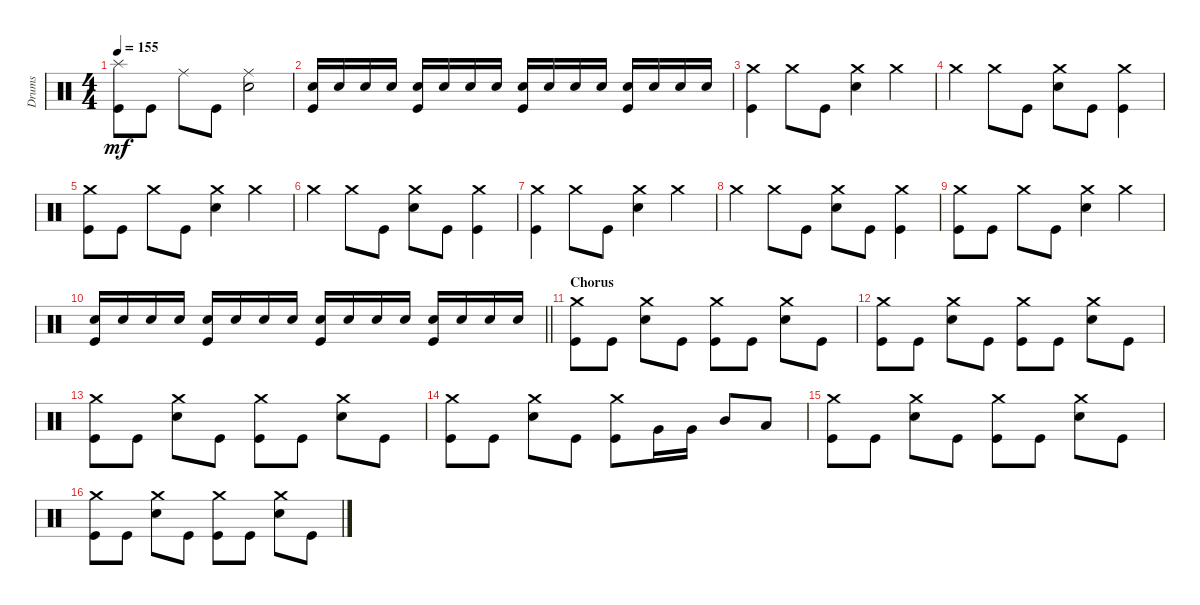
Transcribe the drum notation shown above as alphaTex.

\track ("Drums" "Drums") {instrument percussion}
\staff {score}
\articulation defaults
\ts (4 4)
\tempo 155
\clef neutral
\ks c
("Kick (hit)" "Splash (hit)").8{dy mf} "Kick (hit)".8 "Ride (middle)".8 "Kick (hit)".8 ("Snare (hit) 2" "Ride (middle)").2 |
("Kick (hit)" "Snare (hit) 2").16 "Snare (hit) 2".16 "Snare (hit) 2".16 "Snare (hit) 2".16 ("Kick (hit)" "Snare (hit) 2").16 "Snare (hit) 2".16 "Snare (hit) 2".16 "Snare (hit) 2".16 ("Kick (hit)" "Snare (hit) 2").16 "Snare (hit) 2".16 "Snare (hit) 2".16 "Snare (hit) 2".16 ("Kick (hit)" "Snare (hit) 2").16 "Snare (hit) 2".16 "Snare (hit) 2".16 "Snare (hit) 2".16 |
("Crash medium (hit)" "Kick (hit)").4 "Crash medium (hit)".8 "Kick (hit)".8 ("Snare (hit) 2" "Crash medium (hit)").4 "Crash medium (hit)".4 |
"Crash medium (hit)".4 "Crash medium (hit)".8 "Kick (hit)".8 ("Snare (hit) 2" "Crash medium (hit)").8 "Kick (hit)".8 ("Kick (hit)" "Crash medium (hit)").4 |
("Crash medium (hit)" "Kick (hit)").8 "Kick (hit)".8 "Crash medium (hit)".8 "Kick (hit)".8 ("Snare (hit) 2" "Crash medium (hit)").4 "Crash medium (hit)".4 |
"Crash medium (hit)".4 "Crash medium (hit)".8 "Kick (hit)".8 ("Snare (hit) 2" "Crash medium (hit)").8 "Kick (hit)".8 ("Kick (hit)" "Crash medium (hit)").4 |
("Crash medium (hit)" "Kick (hit)").4 "Crash medium (hit)".8 "Kick (hit)".8 ("Snare (hit) 2" "Crash medium (hit)").4 "Crash medium (hit)".4 |
"Crash medium (hit)".4 "Crash medium (hit)".8 "Kick (hit)".8 ("Snare (hit) 2" "Crash medium (hit)").8 "Kick (hit)".8 ("Kick (hit)" "Crash medium (hit)").4 |
("Crash medium (hit)" "Kick (hit)").8 "Kick (hit)".8 "Crash medium (hit)".8 "Kick (hit)".8 ("Snare (hit) 2" "Crash medium (hit)").4 "Crash medium (hit)".4 |
\barLineRight lightlight
("Kick (hit)" "Snare (hit) 2").16 "Snare (hit) 2".16 "Snare (hit) 2".16 "Snare (hit) 2".16 ("Kick (hit)" "Snare (hit) 2").16 "Snare (hit) 2".16 "Snare (hit) 2".16 "Snare (hit) 2".16 ("Kick (hit)" "Snare (hit) 2").16 "Snare (hit) 2".16 "Snare (hit) 2".16 "Snare (hit) 2".16 ("Kick (hit)" "Snare (hit) 2").16 "Snare (hit) 2".16 "Snare (hit) 2".16 "Snare (hit) 2".16 |
\section ("" "Chorus")
("Kick (hit)" "Crash medium (hit)").8 "Kick (hit)".8 ("Snare (hit) 2" "Crash medium (hit)").8 "Kick (hit)".8 ("Kick (hit)" "Crash medium (hit)").8 "Kick (hit)".8 ("Snare (hit) 2" "Crash medium (hit)").8 "Kick (hit)".8 |
("Kick (hit)" "Crash medium (hit)").8 "Kick (hit)".8 ("Snare (hit) 2" "Crash medium (hit)").8 "Kick (hit)".8 ("Kick (hit)" "Crash medium (hit)").8 "Kick (hit)".8 ("Snare (hit) 2" "Crash medium (hit)").8 "Kick (hit)".8 |
("Kick (hit)" "Crash medium (hit)").8 "Kick (hit)".8 ("Snare (hit) 2" "Crash medium (hit)").8 "Kick (hit)".8 ("Kick (hit)" "Crash medium (hit)").8 "Kick (hit)".8 ("Snare (hit) 2" "Crash medium (hit)").8 "Kick (hit)".8 |
("Kick (hit)" "Crash medium (hit)").8 "Kick (hit)".8 ("Snare (hit) 2" "Crash medium (hit)").8 "Kick (hit)".8 ("Kick (hit)" "Crash medium (hit)").8 "Very Low Tom (hit)".16 "Very Low Tom (hit)".16 "Mid Tom (hit)".8 "Low Tom (hit)".8 |
("Kick (hit)" "Crash medium (hit)").8 "Kick (hit)".8 ("Snare (hit) 2" "Crash medium (hit)").8 "Kick (hit)".8 ("Kick (hit)" "Crash medium (hit)").8 "Kick (hit)".8 ("Snare (hit) 2" "Crash medium (hit)").8 "Kick (hit)".8 |
("Kick (hit)" "Crash medium (hit)").8 "Kick (hit)".8 ("Snare (hit) 2" "Crash medium (hit)").8 "Kick (hit)".8 ("Kick (hit)" "Crash medium (hit)").8 "Kick (hit)".8 ("Snare (hit) 2" "Crash medium (hit)").8 "Kick (hit)".8
